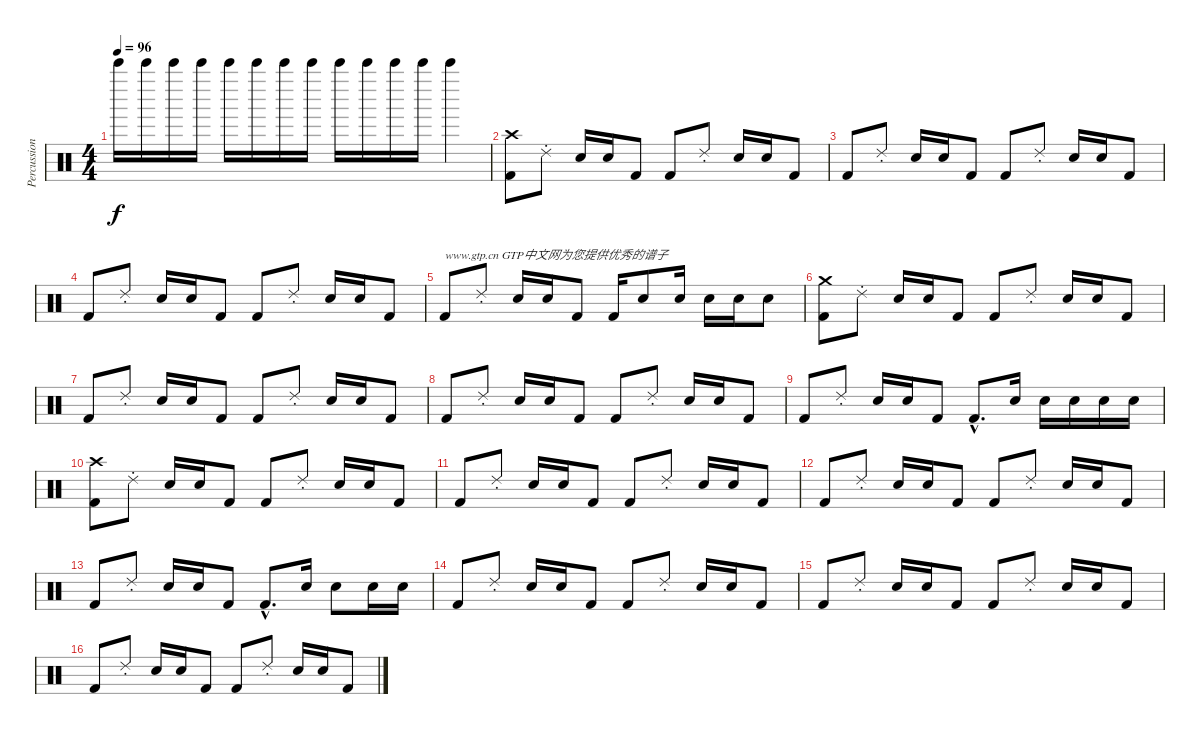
\track ("Percussion" "Percussion") {instrument percussion}
\staff {score}
\articulation defaults
\ts (4 4)
\tempo 96
\clef neutral
\ks c "Bell Tree (hit)".16{dy f} "Bell Tree (hit)".16 "Bell Tree (hit)".16 "Bell Tree (hit)".16 "Bell Tree (hit)".16 "Bell Tree (hit)".16 "Bell Tree (hit)".16 "Bell Tree (hit)".16 "Bell Tree (hit)".16 "Bell Tree (hit)".16 "Bell Tree (hit)".16 "Bell Tree (hit)".16 "Bell Tree (hit)".4
|
("Crash high (hit)" "Kick (hit) 2").8 "Ride (choke) 2".8 "Electric Snare (hit)".16 "Electric Snare (hit)".16 "Kick (hit) 2".8 "Kick (hit) 2".8 "Ride (choke) 2".8 "Electric Snare (hit)".16 "Electric Snare (hit)".16 "Kick (hit) 2".8 |
"Kick (hit) 2".8 "Ride (choke) 2".8 "Electric Snare (hit)".16 "Electric Snare (hit)".16 "Kick (hit) 2".8 "Kick (hit) 2".8 "Ride (choke) 2".8 "Electric Snare (hit)".16 "Electric Snare (hit)".16 "Kick (hit) 2".8 |
"Kick (hit) 2".8 "Ride (choke) 2".8 "Electric Snare (hit)".16 "Electric Snare (hit)".16 "Kick (hit) 2".8 "Kick (hit) 2".8 "Ride (choke) 2".8 "Electric Snare (hit)".16 "Electric Snare (hit)".16 "Kick (hit) 2".8 |
"Kick (hit) 2".8{txt "www.gtp.cn GTP中文网为您提供优秀的谱子"} "Ride (choke) 2".8 "Electric Snare (hit)".16 "Electric Snare (hit)".16 "Kick (hit) 2".8 "Kick (hit) 2".16 "Electric Snare (hit)".8 "Electric Snare (hit)".16 "Electric Snare (hit)".16 "Electric Snare (hit)".16 "Electric Snare (hit)".8 |
("Crash medium (hit)" "Kick (hit) 2").8 "Ride (choke) 2".8 "Electric Snare (hit)".16 "Electric Snare (hit)".16 "Kick (hit) 2".8 "Kick (hit) 2".8 "Ride (choke) 2".8 "Electric Snare (hit)".16 "Electric Snare (hit)".16 "Kick (hit) 2".8 |
"Kick (hit) 2".8 "Ride (choke) 2".8 "Electric Snare (hit)".16 "Electric Snare (hit)".16 "Kick (hit) 2".8 "Kick (hit) 2".8 "Ride (choke) 2".8 "Electric Snare (hit)".16 "Electric Snare (hit)".16 "Kick (hit) 2".8 |
"Kick (hit) 2".8 "Ride (choke) 2".8 "Electric Snare (hit)".16 "Electric Snare (hit)".16 "Kick (hit) 2".8 "Kick (hit) 2".8 "Ride (choke) 2".8 "Electric Snare (hit)".16 "Electric Snare (hit)".16 "Kick (hit) 2".8 |
"Kick (hit) 2".8 "Ride (choke) 2".8 "Electric Snare (hit)".16 "Electric Snare (hit)".16 "Kick (hit) 2".8 "Kick (hit) 2"{hac}.8{d} "Electric Snare (hit)".16 "Electric Snare (hit)".16 "Electric Snare (hit)".16 "Electric Snare (hit)".16 "Electric Snare (hit)".16 |
("Crash high (hit)" "Kick (hit) 2").8 "Ride (choke) 2".8 "Electric Snare (hit)".16 "Electric Snare (hit)".16 "Kick (hit) 2".8 "Kick (hit) 2".8 "Ride (choke) 2".8 "Electric Snare (hit)".16 "Electric Snare (hit)".16 "Kick (hit) 2".8 |
"Kick (hit) 2".8 "Ride (choke) 2".8 "Electric Snare (hit)".16 "Electric Snare (hit)".16 "Kick (hit) 2".8 "Kick (hit) 2".8 "Ride (choke) 2".8 "Electric Snare (hit)".16 "Electric Snare (hit)".16 "Kick (hit) 2".8 |
"Kick (hit) 2".8 "Ride (choke) 2".8 "Electric Snare (hit)".16 "Electric Snare (hit)".16 "Kick (hit) 2".8 "Kick (hit) 2".8 "Ride (choke) 2".8 "Electric Snare (hit)".16 "Electric Snare (hit)".16 "Kick (hit) 2".8 |
"Kick (hit) 2".8 "Ride (choke) 2".8 "Electric Snare (hit)".16 "Electric Snare (hit)".16 "Kick (hit) 2".8 "Kick (hit) 2"{hac}.8{d} "Electric Snare (hit)".16 "Electric Snare (hit)".8 "Electric Snare (hit)".16 "Electric Snare (hit)".16 |
"Kick (hit) 2".8 "Ride (choke) 2".8 "Electric Snare (hit)".16 "Electric Snare (hit)".16 "Kick (hit) 2".8 "Kick (hit) 2".8 "Ride (choke) 2".8 "Electric Snare (hit)".16 "Electric Snare (hit)".16 "Kick (hit) 2".8 |
"Kick (hit) 2".8 "Ride (choke) 2".8 "Electric Snare (hit)".16 "Electric Snare (hit)".16 "Kick (hit) 2".8 "Kick (hit) 2".8 "Ride (choke) 2".8 "Electric Snare (hit)".16 "Electric Snare (hit)".16 "Kick (hit) 2".8 |
"Kick (hit) 2".8 "Ride (choke) 2".8 "Electric Snare (hit)".16 "Electric Snare (hit)".16 "Kick (hit) 2".8 "Kick (hit) 2".8 "Ride (choke) 2".8 "Electric Snare (hit)".16 "Electric Snare (hit)".16 "Kick (hit) 2".8
